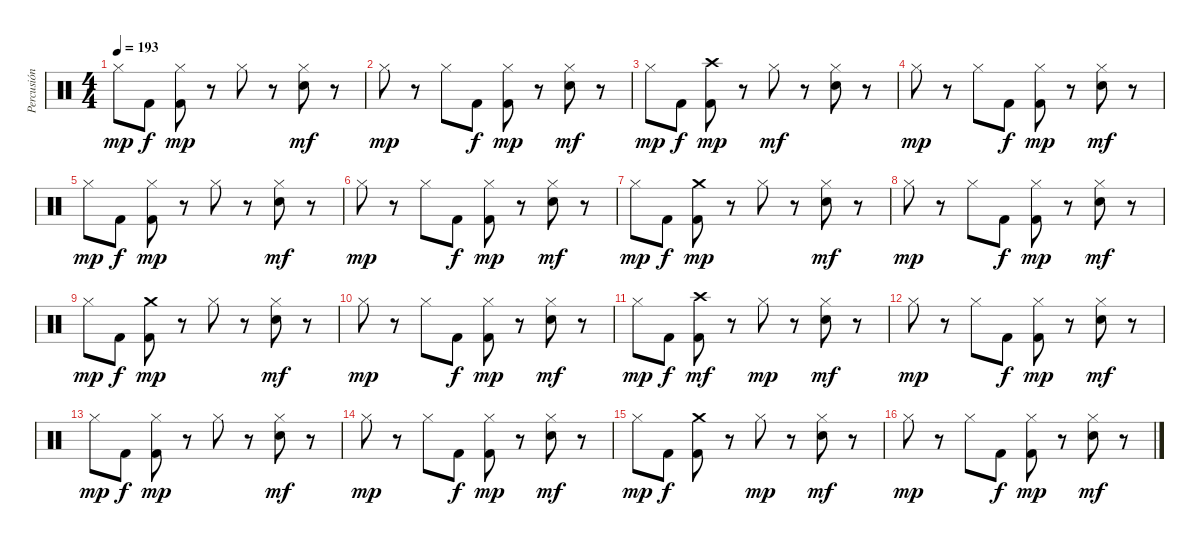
\track ("Percusión" "Percusión") {instrument percussion}
\staff {score}
\articulation defaults
\ts (4 4)
\tempo 193
\clef neutral
\ks c "Hi-Hat (closed)".8{dy mp} "Kick (hit) 2".8{dy f}
("Hi-Hat (closed)" "Kick (hit) 2").8{dy mp} r.8 "Hi-Hat (closed)".8 r.8 ("Hi-Hat (closed)" "Electric Snare (hit)").8{dy mf} r.8 |
"Hi-Hat (closed)".8{dy mp} r.8 "Hi-Hat (closed)".8 "Kick (hit) 2".8{dy f} ("Hi-Hat (closed)" "Kick (hit) 2").8{dy mp} r.8 ("Hi-Hat (closed)" "Electric Snare (hit)").8{dy mf} r.8 |
"Hi-Hat (closed)".8{dy mp} "Kick (hit) 2".8{dy f} ("Crash high (hit)" "Kick (hit) 2").8{dy mp} r.8 "Hi-Hat (closed)".8{dy mf} r.8 ("Hi-Hat (closed)" "Electric Snare (hit)").8 r.8 |
"Hi-Hat (closed)".8{dy mp} r.8 "Hi-Hat (closed)".8 "Kick (hit) 2".8{dy f} ("Hi-Hat (closed)" "Kick (hit) 2").8{dy mp} r.8 ("Hi-Hat (closed)" "Electric Snare (hit)").8{dy mf} r.8 |
"Hi-Hat (closed)".8{dy mp} "Kick (hit) 2".8{dy f} ("Hi-Hat (closed)" "Kick (hit) 2").8{dy mp} r.8 "Hi-Hat (closed)".8 r.8 ("Hi-Hat (closed)" "Electric Snare (hit)").8{dy mf} r.8 |
"Hi-Hat (closed)".8{dy mp} r.8 "Hi-Hat (closed)".8 "Kick (hit) 2".8{dy f} ("Hi-Hat (closed)" "Kick (hit) 2").8{dy mp} r.8 ("Hi-Hat (closed)" "Electric Snare (hit)").8{dy mf} r.8 |
"Hi-Hat (closed)".8{dy mp} "Kick (hit) 2".8{dy f} ("Crash medium (hit)" "Kick (hit) 2").8{dy mp} r.8 "Hi-Hat (closed)".8 r.8 ("Hi-Hat (closed)" "Electric Snare (hit)").8{dy mf} r.8 |
"Hi-Hat (closed)".8{dy mp} r.8 "Hi-Hat (closed)".8 "Kick (hit) 2".8{dy f} ("Hi-Hat (closed)" "Kick (hit) 2").8{dy mp} r.8 ("Hi-Hat (closed)" "Electric Snare (hit)").8{dy mf} r.8 |
"Hi-Hat (closed)".8{dy mp} "Kick (hit) 2".8{dy f} ("Crash medium (hit)" "Kick (hit) 2").8{dy mp} r.8 "Hi-Hat (closed)".8 r.8 ("Hi-Hat (closed)" "Electric Snare (hit)").8{dy mf} r.8 |
"Hi-Hat (closed)".8{dy mp} r.8 "Hi-Hat (closed)".8 "Kick (hit) 2".8{dy f} ("Hi-Hat (closed)" "Kick (hit) 2").8{dy mp} r.8 ("Hi-Hat (closed)" "Electric Snare (hit)").8{dy mf} r.8 |
"Hi-Hat (closed)".8{dy mp} "Kick (hit) 2".8{dy f} ("Crash high (hit)" "Kick (hit) 2").8{dy mf} r.8 "Hi-Hat (closed)".8{dy mp} r.8 ("Hi-Hat (closed)" "Electric Snare (hit)").8{dy mf} r.8 |
"Hi-Hat (closed)".8{dy mp} r.8 "Hi-Hat (closed)".8 "Kick (hit) 2".8{dy f} ("Hi-Hat (closed)" "Kick (hit) 2").8{dy mp} r.8 ("Hi-Hat (closed)" "Electric Snare (hit)").8{dy mf} r.8 |
"Hi-Hat (closed)".8{dy mp} "Kick (hit) 2".8{dy f} ("Hi-Hat (closed)" "Kick (hit) 2").8{dy mp} r.8 "Hi-Hat (closed)".8 r.8 ("Hi-Hat (closed)" "Electric Snare (hit)").8{dy mf} r.8 |
"Hi-Hat (closed)".8{dy mp} r.8 "Hi-Hat (closed)".8 "Kick (hit) 2".8{dy f} ("Hi-Hat (closed)" "Kick (hit) 2").8{dy mp} r.8 ("Hi-Hat (closed)" "Electric Snare (hit)").8{dy mf} r.8 |
"Hi-Hat (closed)".8{dy mp} "Kick (hit) 2".8{dy f} ("Crash medium (hit)" "Kick (hit) 2").8 r.8 "Hi-Hat (closed)".8{dy mp} r.8 ("Hi-Hat (closed)" "Electric Snare (hit)").8{dy mf} r.8 |
"Hi-Hat (closed)".8{dy mp} r.8 "Hi-Hat (closed)".8 "Kick (hit) 2".8{dy f} ("Hi-Hat (closed)" "Kick (hit) 2").8{dy mp} r.8 ("Hi-Hat (closed)" "Electric Snare (hit)").8{dy mf} r.8
